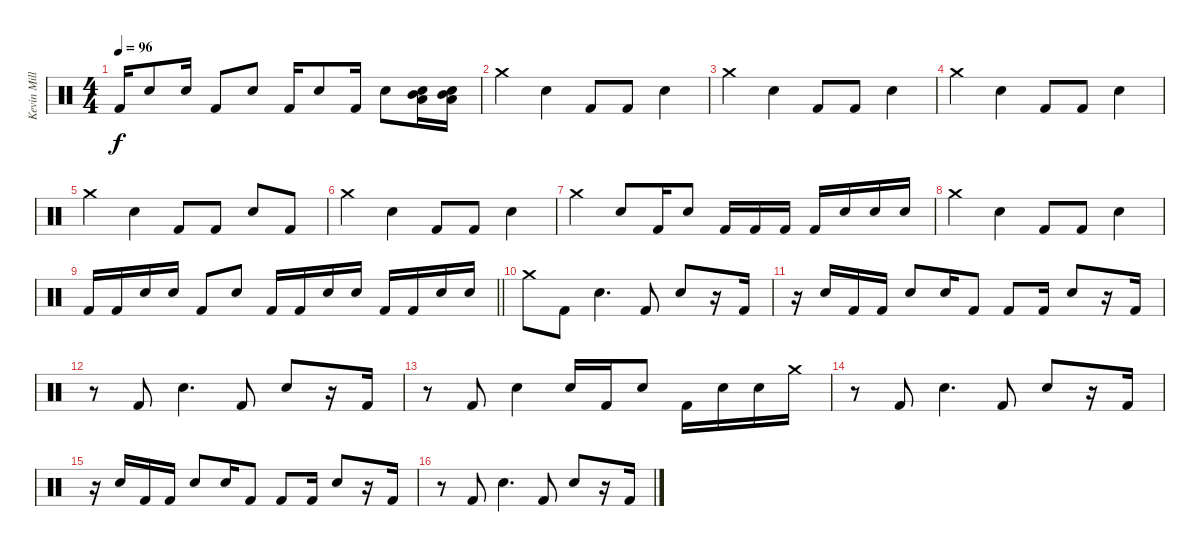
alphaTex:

\track ("Kevin Miller (Drums)" "Kevin Mill") {instrument percussion}
\staff {score}
\articulation defaults
\ts (4 4)
\tempo 96
\clef neutral
\ks c "Kick (hit) 2".16{dy f} "Electric Snare (hit)".8 "Electric Snare (hit)".16 "Kick (hit) 2".8 "Electric Snare (hit)".8 "Kick (hit) 2".16 "Electric Snare (hit)".8 "Kick (hit) 2".16 "Electric Snare (hit)".8
("Electric Snare (hit)" "Low Tom (hit)" "Mid Tom (hit)").16 ("Electric Snare (hit)" "Low Tom (hit)" "Mid Tom (hit)").16 |
"Crash medium (hit)".4 "Electric Snare (hit)".4 "Kick (hit) 2".8 "Kick (hit) 2".8 "Electric Snare (hit)".4 |
"Crash medium (hit)".4 "Electric Snare (hit)".4 "Kick (hit) 2".8 "Kick (hit) 2".8 "Electric Snare (hit)".4 |
"Crash medium (hit)".4 "Electric Snare (hit)".4 "Kick (hit) 2".8 "Kick (hit) 2".8 "Electric Snare (hit)".4 |
"Crash medium (hit)".4 "Electric Snare (hit)".4 "Kick (hit) 2".8 "Kick (hit) 2".8 "Electric Snare (hit)".8 "Kick (hit) 2".8 |
"Crash medium (hit)".4 "Electric Snare (hit)".4 "Kick (hit) 2".8 "Kick (hit) 2".8 "Electric Snare (hit)".4 |
"Crash medium (hit)".4 "Electric Snare (hit)".8 "Kick (hit) 2".16 "Electric Snare (hit)".8 "Kick (hit) 2".16 "Kick (hit) 2".16 "Kick (hit) 2".16 "Kick (hit) 2".16 "Electric Snare (hit)".16 "Electric Snare (hit)".16 "Electric Snare (hit)".16 |
"Crash medium (hit)".4 "Electric Snare (hit)".4 "Kick (hit) 2".8 "Kick (hit) 2".8 "Electric Snare (hit)".4 |
\barLineRight lightlight "Kick (hit) 2".16 "Kick (hit) 2".16 "Electric Snare (hit)".16 "Electric Snare (hit)".16 "Kick (hit) 2".8 "Electric Snare (hit)".8 "Kick (hit) 2".16 "Kick (hit) 2".16 "Electric Snare (hit)".16 "Electric Snare (hit)".16 "Kick (hit) 2".16 "Kick (hit) 2".16 "Electric Snare (hit)".16 "Electric Snare (hit)".16
|
"Crash medium (hit)".8 "Kick (hit) 2".8 "Electric Snare (hit)".4{d} "Kick (hit) 2".8 "Electric Snare (hit)".8 r.16 "Kick (hit) 2".16 |
r.16 "Electric Snare (hit)".16 "Kick (hit) 2".16 "Kick (hit) 2".16 "Electric Snare (hit)".8 "Electric Snare (hit)".16 "Kick (hit) 2".8 "Kick (hit) 2".8 "Kick (hit) 2".16 "Electric Snare (hit)".8 r.16 "Kick (hit) 2".16 |
r.8 "Kick (hit) 2".8 "Electric Snare (hit)".4{d} "Kick (hit) 2".8 "Electric Snare (hit)".8 r.16 "Kick (hit) 2".16 |
r.8 "Kick (hit) 2".8 "Electric Snare (hit)".4 "Electric Snare (hit)".16 "Kick (hit) 2".16 "Electric Snare (hit)".8 "Kick (hit) 2".16 "Electric Snare (hit)".16 "Electric Snare (hit)".16 "Crash medium (hit)".16 |
r.8 "Kick (hit) 2".8 "Electric Snare (hit)".4{d} "Kick (hit) 2".8 "Electric Snare (hit)".8 r.16 "Kick (hit) 2".16 |
r.16 "Electric Snare (hit)".16 "Kick (hit) 2".16 "Kick (hit) 2".16 "Electric Snare (hit)".8 "Electric Snare (hit)".16 "Kick (hit) 2".8 "Kick (hit) 2".8 "Kick (hit) 2".16 "Electric Snare (hit)".8 r.16 "Kick (hit) 2".16 |
r.8 "Kick (hit) 2".8 "Electric Snare (hit)".4{d} "Kick (hit) 2".8 "Electric Snare (hit)".8 r.16 "Kick (hit) 2".16
